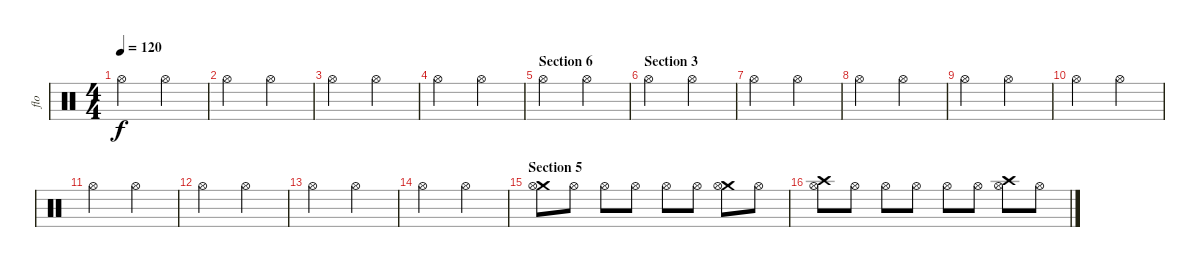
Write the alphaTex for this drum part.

\track ("flo" "flo") {instrument percussion}
\staff {score}
\articulation defaults
\ts (4 4)
\tempo 120
\clef neutral
\ks c "Hi-Hat (open)".2{dy f} "Hi-Hat (open)".2
|
"Hi-Hat (open)".2 "Hi-Hat (open)".2 |
"Hi-Hat (open)".2 "Hi-Hat (open)".2 |
"Hi-Hat (open)".2 "Hi-Hat (open)".2 |
\section ("" "Section 6")
"Hi-Hat (open)".2 "Hi-Hat (open)".2 |
\section ("" "Section 3")
"Hi-Hat (open)".2 "Hi-Hat (open)".2 |
"Hi-Hat (open)".2 "Hi-Hat (open)".2 |
"Hi-Hat (open)".2 "Hi-Hat (open)".2 |
"Hi-Hat (open)".2 "Hi-Hat (open)".2 |
"Hi-Hat (open)".2 "Hi-Hat (open)".2 |
"Hi-Hat (open)".2 "Hi-Hat (open)".2 |
"Hi-Hat (open)".2 "Hi-Hat (open)".2 |
"Hi-Hat (open)".2 "Hi-Hat (open)".2 |
"Hi-Hat (open)".2 "Hi-Hat (open)".2 |
\section ("" "Section 5")
("Crash medium (hit)" "Hi-Hat (open)").8 "Hi-Hat (open)".8 "Hi-Hat (open)".8 "Hi-Hat (open)".8 "Hi-Hat (open)".8 "Hi-Hat (open)".8 ("Crash medium (hit)" "Hi-Hat (open)").8 "Hi-Hat (open)".8 |
("Crash high (hit)" "Hi-Hat (open)").8 "Hi-Hat (open)".8 "Hi-Hat (open)".8 "Hi-Hat (open)".8 "Hi-Hat (open)".8 "Hi-Hat (open)".8 ("Crash high (hit)" "Hi-Hat (open)").8 "Hi-Hat (open)".8
